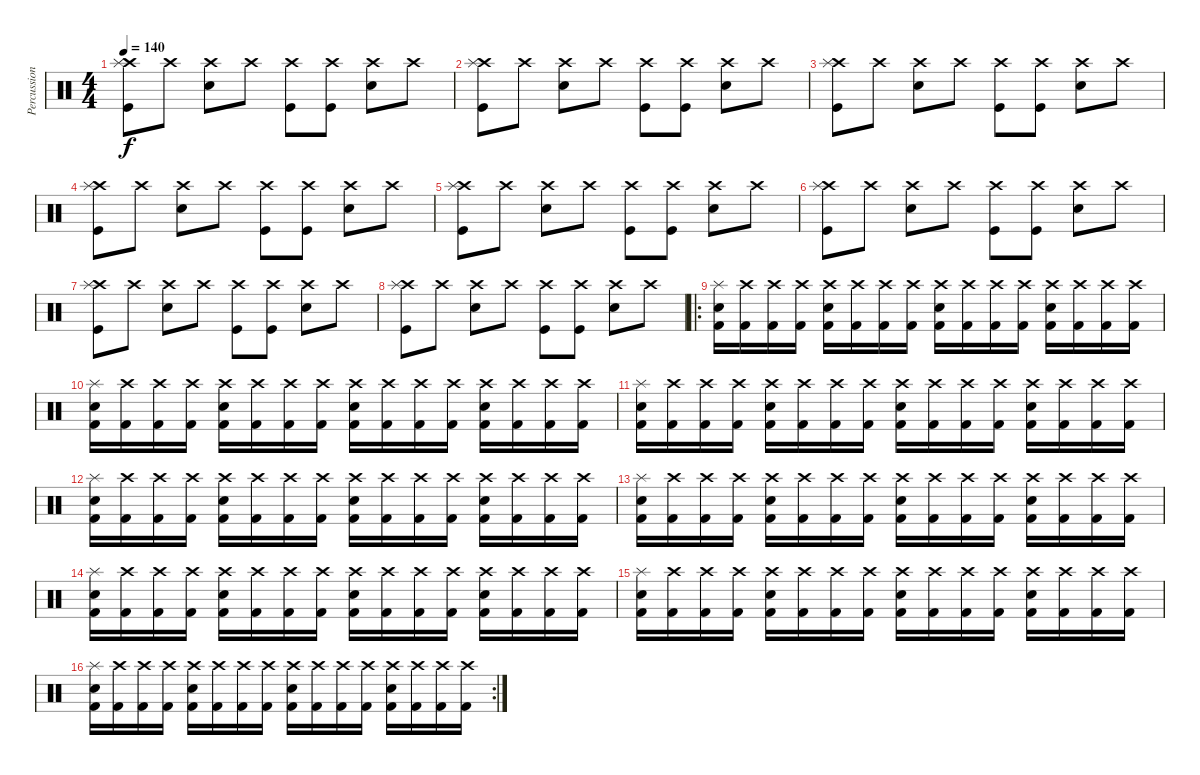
\track ("Percussion" "Percussion") {instrument percussion}
\staff {score}
\articulation defaults
\ts (4 4)
\tempo 140
\clef neutral
\ks c
("Crash high (hit)" "Kick (hit)" "Splash (hit)").8{dy f} "Crash high (hit)".8 ("Crash high (hit)" "Snare (hit) 2").8 "Crash high (hit)".8 ("Crash high (hit)" "Kick (hit)").8 ("Crash high (hit)" "Kick (hit)").8 ("Crash high (hit)" "Snare (hit) 2").8 "Crash high (hit)".8 |
("Crash high (hit)" "Kick (hit)" "Splash (hit)").8 "Crash high (hit)".8 ("Crash high (hit)" "Snare (hit) 2").8 "Crash high (hit)".8 ("Crash high (hit)" "Kick (hit)").8 ("Crash high (hit)" "Kick (hit)").8 ("Crash high (hit)" "Snare (hit) 2").8 "Crash high (hit)".8 |
("Crash high (hit)" "Kick (hit)" "Splash (hit)").8 "Crash high (hit)".8 ("Crash high (hit)" "Snare (hit) 2").8 "Crash high (hit)".8 ("Crash high (hit)" "Kick (hit)").8 ("Crash high (hit)" "Kick (hit)").8 ("Crash high (hit)" "Snare (hit) 2").8 "Crash high (hit)".8 |
("Crash high (hit)" "Kick (hit)" "Splash (hit)").8 "Crash high (hit)".8 ("Crash high (hit)" "Snare (hit) 2").8 "Crash high (hit)".8 ("Crash high (hit)" "Kick (hit)").8 ("Crash high (hit)" "Kick (hit)").8 ("Crash high (hit)" "Snare (hit) 2").8 "Crash high (hit)".8 |
("Crash high (hit)" "Kick (hit)" "Splash (hit)").8 "Crash high (hit)".8 ("Crash high (hit)" "Snare (hit) 2").8 "Crash high (hit)".8 ("Crash high (hit)" "Kick (hit)").8 ("Crash high (hit)" "Kick (hit)").8 ("Crash high (hit)" "Snare (hit) 2").8 "Crash high (hit)".8 |
("Crash high (hit)" "Kick (hit)" "Splash (hit)").8 "Crash high (hit)".8 ("Crash high (hit)" "Snare (hit) 2").8 "Crash high (hit)".8 ("Crash high (hit)" "Kick (hit)").8 ("Crash high (hit)" "Kick (hit)").8 ("Crash high (hit)" "Snare (hit) 2").8 "Crash high (hit)".8 |
("Crash high (hit)" "Kick (hit)" "Splash (hit)").8 "Crash high (hit)".8 ("Crash high (hit)" "Snare (hit) 2").8 "Crash high (hit)".8 ("Crash high (hit)" "Kick (hit)").8 ("Crash high (hit)" "Kick (hit)").8 ("Crash high (hit)" "Snare (hit) 2").8 "Crash high (hit)".8 |
("Crash high (hit)" "Kick (hit)" "Splash (hit)").8 "Crash high (hit)".8 ("Crash high (hit)" "Snare (hit) 2").8 "Crash high (hit)".8 ("Crash high (hit)" "Kick (hit)").8 ("Crash high (hit)" "Kick (hit)").8 ("Crash high (hit)" "Snare (hit) 2").8 "Crash high (hit)".8 |
\ro
("Snare (hit) 2" "Splash (hit)" "Kick (hit) 2").16 ("Crash high (hit)" "Kick (hit) 2").16 ("Crash high (hit)" "Kick (hit) 2").16 ("Crash high (hit)" "Kick (hit) 2").16 ("Crash high (hit)" "Snare (hit) 2" "Kick (hit) 2").16 ("Crash high (hit)" "Kick (hit) 2").16 ("Crash high (hit)" "Kick (hit) 2").16 ("Crash high (hit)" "Kick (hit) 2").16 ("Crash high (hit)" "Snare (hit) 2" "Kick (hit) 2").16 ("Crash high (hit)" "Kick (hit) 2").16 ("Crash high (hit)" "Kick (hit) 2").16 ("Crash high (hit)" "Kick (hit) 2").16 ("Crash high (hit)" "Snare (hit) 2" "Kick (hit) 2").16 ("Crash high (hit)" "Kick (hit) 2").16 ("Crash high (hit)" "Kick (hit) 2").16 ("Crash high (hit)" "Kick (hit) 2").16 |
("Snare (hit) 2" "Splash (hit)" "Kick (hit) 2").16 ("Crash high (hit)" "Kick (hit) 2").16 ("Crash high (hit)" "Kick (hit) 2").16 ("Crash high (hit)" "Kick (hit) 2").16 ("Crash high (hit)" "Snare (hit) 2" "Kick (hit) 2").16 ("Crash high (hit)" "Kick (hit) 2").16 ("Crash high (hit)" "Kick (hit) 2").16 ("Crash high (hit)" "Kick (hit) 2").16 ("Crash high (hit)" "Snare (hit) 2" "Kick (hit) 2").16 ("Crash high (hit)" "Kick (hit) 2").16 ("Crash high (hit)" "Kick (hit) 2").16 ("Crash high (hit)" "Kick (hit) 2").16 ("Crash high (hit)" "Snare (hit) 2" "Kick (hit) 2").16 ("Crash high (hit)" "Kick (hit) 2").16 ("Crash high (hit)" "Kick (hit) 2").16 ("Crash high (hit)" "Kick (hit) 2").16 |
("Snare (hit) 2" "Splash (hit)" "Kick (hit) 2").16 ("Crash high (hit)" "Kick (hit) 2").16 ("Crash high (hit)" "Kick (hit) 2").16 ("Crash high (hit)" "Kick (hit) 2").16 ("Crash high (hit)" "Snare (hit) 2" "Kick (hit) 2").16 ("Crash high (hit)" "Kick (hit) 2").16 ("Crash high (hit)" "Kick (hit) 2").16 ("Crash high (hit)" "Kick (hit) 2").16 ("Crash high (hit)" "Snare (hit) 2" "Kick (hit) 2").16 ("Crash high (hit)" "Kick (hit) 2").16 ("Crash high (hit)" "Kick (hit) 2").16 ("Crash high (hit)" "Kick (hit) 2").16 ("Crash high (hit)" "Snare (hit) 2" "Kick (hit) 2").16 ("Crash high (hit)" "Kick (hit) 2").16 ("Crash high (hit)" "Kick (hit) 2").16 ("Crash high (hit)" "Kick (hit) 2").16 |
("Snare (hit) 2" "Splash (hit)" "Kick (hit) 2").16 ("Crash high (hit)" "Kick (hit) 2").16 ("Crash high (hit)" "Kick (hit) 2").16 ("Crash high (hit)" "Kick (hit) 2").16 ("Crash high (hit)" "Snare (hit) 2" "Kick (hit) 2").16 ("Crash high (hit)" "Kick (hit) 2").16 ("Crash high (hit)" "Kick (hit) 2").16 ("Crash high (hit)" "Kick (hit) 2").16 ("Crash high (hit)" "Snare (hit) 2" "Kick (hit) 2").16 ("Crash high (hit)" "Kick (hit) 2").16 ("Crash high (hit)" "Kick (hit) 2").16 ("Crash high (hit)" "Kick (hit) 2").16 ("Crash high (hit)" "Snare (hit) 2" "Kick (hit) 2").16 ("Crash high (hit)" "Kick (hit) 2").16 ("Crash high (hit)" "Kick (hit) 2").16 ("Crash high (hit)" "Kick (hit) 2").16 |
("Snare (hit) 2" "Splash (hit)" "Kick (hit) 2").16 ("Crash high (hit)" "Kick (hit) 2").16 ("Crash high (hit)" "Kick (hit) 2").16 ("Crash high (hit)" "Kick (hit) 2").16 ("Crash high (hit)" "Snare (hit) 2" "Kick (hit) 2").16 ("Crash high (hit)" "Kick (hit) 2").16 ("Crash high (hit)" "Kick (hit) 2").16 ("Crash high (hit)" "Kick (hit) 2").16 ("Crash high (hit)" "Snare (hit) 2" "Kick (hit) 2").16 ("Crash high (hit)" "Kick (hit) 2").16 ("Crash high (hit)" "Kick (hit) 2").16 ("Crash high (hit)" "Kick (hit) 2").16 ("Crash high (hit)" "Snare (hit) 2" "Kick (hit) 2").16 ("Crash high (hit)" "Kick (hit) 2").16 ("Crash high (hit)" "Kick (hit) 2").16 ("Crash high (hit)" "Kick (hit) 2").16 |
("Snare (hit) 2" "Splash (hit)" "Kick (hit) 2").16 ("Crash high (hit)" "Kick (hit) 2").16 ("Crash high (hit)" "Kick (hit) 2").16 ("Crash high (hit)" "Kick (hit) 2").16 ("Crash high (hit)" "Snare (hit) 2" "Kick (hit) 2").16 ("Crash high (hit)" "Kick (hit) 2").16 ("Crash high (hit)" "Kick (hit) 2").16 ("Crash high (hit)" "Kick (hit) 2").16 ("Crash high (hit)" "Snare (hit) 2" "Kick (hit) 2").16 ("Crash high (hit)" "Kick (hit) 2").16 ("Crash high (hit)" "Kick (hit) 2").16 ("Crash high (hit)" "Kick (hit) 2").16 ("Crash high (hit)" "Snare (hit) 2" "Kick (hit) 2").16 ("Crash high (hit)" "Kick (hit) 2").16 ("Crash high (hit)" "Kick (hit) 2").16 ("Crash high (hit)" "Kick (hit) 2").16 |
("Snare (hit) 2" "Splash (hit)" "Kick (hit) 2").16 ("Crash high (hit)" "Kick (hit) 2").16 ("Crash high (hit)" "Kick (hit) 2").16 ("Crash high (hit)" "Kick (hit) 2").16 ("Crash high (hit)" "Snare (hit) 2" "Kick (hit) 2").16 ("Crash high (hit)" "Kick (hit) 2").16 ("Crash high (hit)" "Kick (hit) 2").16 ("Crash high (hit)" "Kick (hit) 2").16 ("Crash high (hit)" "Snare (hit) 2" "Kick (hit) 2").16 ("Crash high (hit)" "Kick (hit) 2").16 ("Crash high (hit)" "Kick (hit) 2").16 ("Crash high (hit)" "Kick (hit) 2").16 ("Crash high (hit)" "Snare (hit) 2" "Kick (hit) 2").16 ("Crash high (hit)" "Kick (hit) 2").16 ("Crash high (hit)" "Kick (hit) 2").16 ("Crash high (hit)" "Kick (hit) 2").16 |
\rc 2
("Snare (hit) 2" "Splash (hit)" "Kick (hit) 2").16 ("Crash high (hit)" "Kick (hit) 2").16 ("Crash high (hit)" "Kick (hit) 2").16 ("Crash high (hit)" "Kick (hit) 2").16 ("Crash high (hit)" "Snare (hit) 2" "Kick (hit) 2").16 ("Crash high (hit)" "Kick (hit) 2").16 ("Crash high (hit)" "Kick (hit) 2").16 ("Crash high (hit)" "Kick (hit) 2").16 ("Crash high (hit)" "Snare (hit) 2" "Kick (hit) 2").16 ("Crash high (hit)" "Kick (hit) 2").16 ("Crash high (hit)" "Kick (hit) 2").16 ("Crash high (hit)" "Kick (hit) 2").16 ("Crash high (hit)" "Snare (hit) 2" "Kick (hit) 2").16 ("Crash high (hit)" "Kick (hit) 2").16 ("Crash high (hit)" "Kick (hit) 2").16 ("Crash high (hit)" "Kick (hit) 2").16
